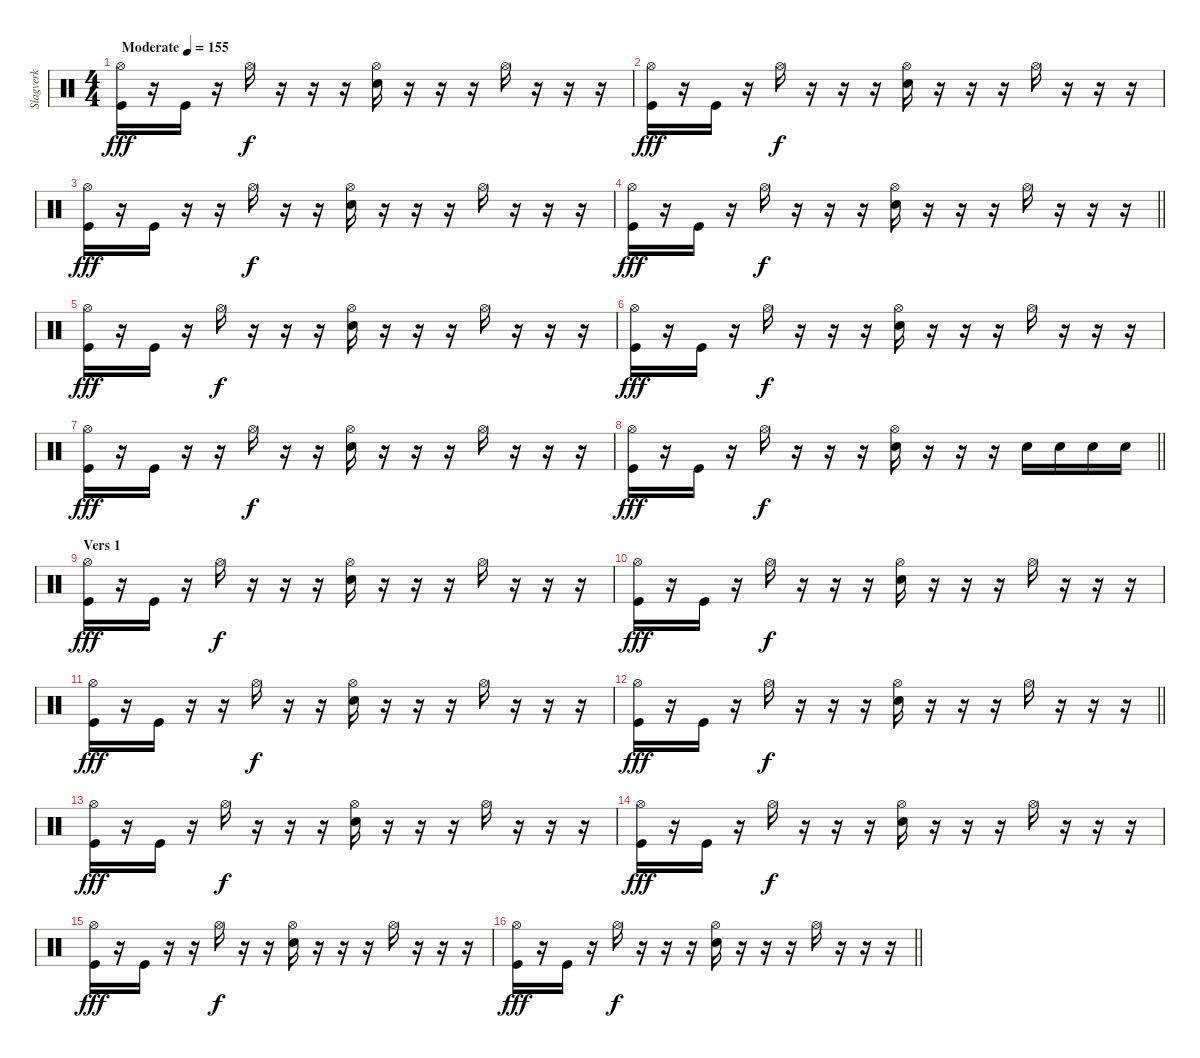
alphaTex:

\track ("Slagverk" "Slagverk") {instrument percussion}
\staff {score}
\articulation defaults
\ts (4 4)
\tempo (155 "Moderate")
\clef neutral
\ks c
("Hi-Hat (open)" "Kick (hit)").16{dy fff} r.16 "Kick (hit)".16 r.16 "Hi-Hat (open)".16{dy f} r.16 r.16 r.16 ("Hi-Hat (open)" "Electric Snare (hit)").16 r.16 r.16 r.16 "Hi-Hat (open)".16 r.16 r.16 r.16 |
("Hi-Hat (open)" "Kick (hit)").16{dy fff} r.16 "Kick (hit)".16 r.16 "Hi-Hat (open)".16{dy f} r.16 r.16 r.16 ("Hi-Hat (open)" "Electric Snare (hit)").16 r.16 r.16 r.16 "Hi-Hat (open)".16 r.16 r.16 r.16 |
("Hi-Hat (open)" "Kick (hit)").16{dy fff} r.16 "Kick (hit)".16 r.16 r.16 "Hi-Hat (open)".16{dy f} r.16 r.16 ("Hi-Hat (open)" "Electric Snare (hit)").16 r.16 r.16 r.16 "Hi-Hat (open)".16 r.16 r.16 r.16 |
\barLineRight lightlight
("Hi-Hat (open)" "Kick (hit)").16{dy fff} r.16 "Kick (hit)".16 r.16 "Hi-Hat (open)".16{dy f} r.16 r.16 r.16 ("Hi-Hat (open)" "Electric Snare (hit)").16 r.16 r.16 r.16 "Hi-Hat (open)".16 r.16 r.16 r.16 |
("Hi-Hat (open)" "Kick (hit)").16{dy fff} r.16 "Kick (hit)".16 r.16 "Hi-Hat (open)".16{dy f} r.16 r.16 r.16 ("Hi-Hat (open)" "Electric Snare (hit)").16 r.16 r.16 r.16 "Hi-Hat (open)".16 r.16 r.16 r.16 |
("Hi-Hat (open)" "Kick (hit)").16{dy fff} r.16 "Kick (hit)".16 r.16 "Hi-Hat (open)".16{dy f} r.16 r.16 r.16 ("Hi-Hat (open)" "Electric Snare (hit)").16 r.16 r.16 r.16 "Hi-Hat (open)".16 r.16 r.16 r.16 |
("Hi-Hat (open)" "Kick (hit)").16{dy fff} r.16 "Kick (hit)".16 r.16 r.16 "Hi-Hat (open)".16{dy f} r.16 r.16 ("Hi-Hat (open)" "Electric Snare (hit)").16 r.16 r.16 r.16 "Hi-Hat (open)".16 r.16 r.16 r.16 |
\barLineRight lightlight
("Hi-Hat (open)" "Kick (hit)").16{dy fff} r.16 "Kick (hit)".16 r.16 "Hi-Hat (open)".16{dy f} r.16 r.16 r.16 ("Hi-Hat (open)" "Electric Snare (hit)").16 r.16 r.16 r.16 "Electric Snare (hit)".16 "Electric Snare (hit)".16 "Electric Snare (hit)".16 "Electric Snare (hit)".16 |
\section ("" "Vers 1")
("Hi-Hat (open)" "Kick (hit)").16{dy fff} r.16 "Kick (hit)".16 r.16 "Hi-Hat (open)".16{dy f} r.16 r.16 r.16 ("Hi-Hat (open)" "Electric Snare (hit)").16 r.16 r.16 r.16 "Hi-Hat (open)".16 r.16 r.16 r.16 |
("Hi-Hat (open)" "Kick (hit)").16{dy fff} r.16 "Kick (hit)".16 r.16 "Hi-Hat (open)".16{dy f} r.16 r.16 r.16 ("Hi-Hat (open)" "Electric Snare (hit)").16 r.16 r.16 r.16 "Hi-Hat (open)".16 r.16 r.16 r.16 |
("Hi-Hat (open)" "Kick (hit)").16{dy fff} r.16 "Kick (hit)".16 r.16 r.16 "Hi-Hat (open)".16{dy f} r.16 r.16 ("Hi-Hat (open)" "Electric Snare (hit)").16 r.16 r.16 r.16 "Hi-Hat (open)".16 r.16 r.16 r.16 |
\barLineRight lightlight
("Hi-Hat (open)" "Kick (hit)").16{dy fff} r.16 "Kick (hit)".16 r.16 "Hi-Hat (open)".16{dy f} r.16 r.16 r.16 ("Hi-Hat (open)" "Electric Snare (hit)").16 r.16 r.16 r.16 "Hi-Hat (open)".16 r.16 r.16 r.16 |
("Hi-Hat (open)" "Kick (hit)").16{dy fff} r.16 "Kick (hit)".16 r.16 "Hi-Hat (open)".16{dy f} r.16 r.16 r.16 ("Hi-Hat (open)" "Electric Snare (hit)").16 r.16 r.16 r.16 "Hi-Hat (open)".16 r.16 r.16 r.16 |
("Hi-Hat (open)" "Kick (hit)").16{dy fff} r.16 "Kick (hit)".16 r.16 "Hi-Hat (open)".16{dy f} r.16 r.16 r.16 ("Hi-Hat (open)" "Electric Snare (hit)").16 r.16 r.16 r.16 "Hi-Hat (open)".16 r.16 r.16 r.16 |
("Hi-Hat (open)" "Kick (hit)").16{dy fff} r.16 "Kick (hit)".16 r.16 r.16 "Hi-Hat (open)".16{dy f} r.16 r.16 ("Hi-Hat (open)" "Electric Snare (hit)").16 r.16 r.16 r.16 "Hi-Hat (open)".16 r.16 r.16 r.16 |
\barLineRight lightlight
("Hi-Hat (open)" "Kick (hit)").16{dy fff} r.16 "Kick (hit)".16 r.16 "Hi-Hat (open)".16{dy f} r.16 r.16 r.16 ("Hi-Hat (open)" "Electric Snare (hit)").16 r.16 r.16 r.16 "Hi-Hat (open)".16 r.16 r.16 r.16
